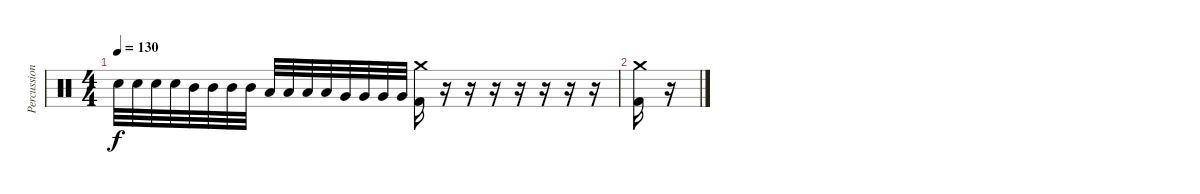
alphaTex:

\track ("Percussion" "Percussion") {instrument percussion}
\staff {score}
\articulation defaults
\ts (4 4)
\tempo 130
\clef neutral
\ks c "Electric Snare (hit)".32{dy f} "Electric Snare (hit)".32 "Electric Snare (hit)".32 "Electric Snare (hit)".32 "Mid Tom (hit)".32 "Mid Tom (hit)".32 "Mid Tom (hit)".32 "Mid Tom (hit)".32 "Low Tom (hit)".32 "Low Tom (hit)".32 "Low Tom (hit)".32 "Low Tom (hit)".32 "Very Low Tom (hit)".32 "Very Low Tom (hit)".32 "Very Low Tom (hit)".32 "Very Low Tom (hit)".32
("Crash medium (hit)" "Kick (hit) 2").16 r.16{volume 0} r.16 r.16 r.16 r.16 r.16 r.16 |
("Crash medium (hit)" "Kick (hit) 2").16{volume 13} r.16{volume 0}
